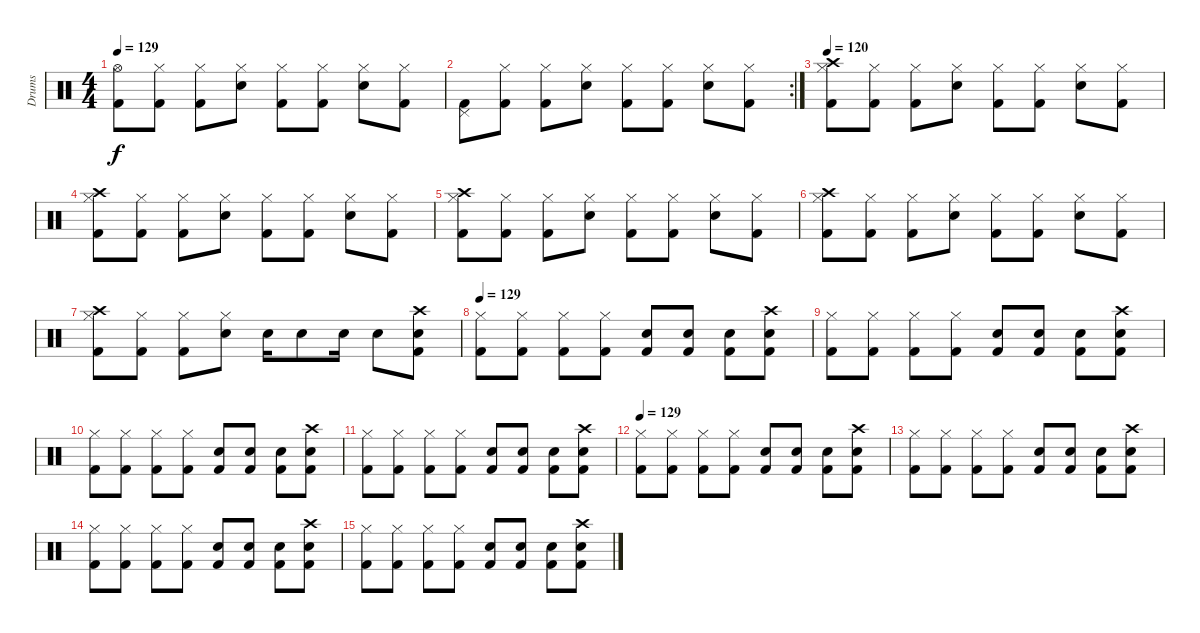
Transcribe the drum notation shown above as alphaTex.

\track ("Drums" "Drums") {instrument percussion}
\staff {score}
\articulation defaults
\ts (4 4)
\tempo 129
\clef neutral
\ks c
("Kick (hit) 2" "Hi-Hat (open)").8{dy f} ("Kick (hit) 2" "Hi-Hat (closed)").8 ("Kick (hit) 2" "Hi-Hat (closed)").8 ("Electric Snare (hit)" "Hi-Hat (closed)").8 ("Kick (hit) 2" "Hi-Hat (closed)").8 ("Kick (hit) 2" "Hi-Hat (closed)").8 ("Electric Snare (hit)" "Hi-Hat (closed)").8 ("Kick (hit) 2" "Hi-Hat (closed)").8 |
\rc 2
("Kick (hit) 2" "Pedal Hi-Hat (hit)").8 ("Kick (hit) 2" "Hi-Hat (closed)").8 ("Kick (hit) 2" "Hi-Hat (closed)").8 ("Electric Snare (hit)" "Hi-Hat (closed)").8 ("Kick (hit) 2" "Hi-Hat (closed)").8 ("Kick (hit) 2" "Hi-Hat (closed)").8 ("Electric Snare (hit)" "Hi-Hat (closed)").8 ("Kick (hit) 2" "Hi-Hat (closed)").8 |
\tempo 120
("Hi-Hat (closed)" "Kick (hit) 2" "Crash high (hit)").8 ("Kick (hit) 2" "Hi-Hat (closed)").8 ("Kick (hit) 2" "Hi-Hat (closed)").8 ("Electric Snare (hit)" "Hi-Hat (closed)").8 ("Kick (hit) 2" "Hi-Hat (closed)").8 ("Kick (hit) 2" "Hi-Hat (closed)").8 ("Electric Snare (hit)" "Hi-Hat (closed)").8 ("Kick (hit) 2" "Hi-Hat (closed)").8 |
("Hi-Hat (closed)" "Kick (hit) 2" "Crash high (hit)").8 ("Kick (hit) 2" "Hi-Hat (closed)").8 ("Kick (hit) 2" "Hi-Hat (closed)").8 ("Electric Snare (hit)" "Hi-Hat (closed)").8 ("Kick (hit) 2" "Hi-Hat (closed)").8 ("Kick (hit) 2" "Hi-Hat (closed)").8 ("Electric Snare (hit)" "Hi-Hat (closed)").8 ("Kick (hit) 2" "Hi-Hat (closed)").8 |
("Hi-Hat (closed)" "Kick (hit) 2" "Crash high (hit)").8 ("Kick (hit) 2" "Hi-Hat (closed)").8 ("Kick (hit) 2" "Hi-Hat (closed)").8 ("Electric Snare (hit)" "Hi-Hat (closed)").8 ("Kick (hit) 2" "Hi-Hat (closed)").8 ("Kick (hit) 2" "Hi-Hat (closed)").8 ("Electric Snare (hit)" "Hi-Hat (closed)").8 ("Kick (hit) 2" "Hi-Hat (closed)").8 |
("Hi-Hat (closed)" "Kick (hit) 2" "Crash high (hit)").8 ("Kick (hit) 2" "Hi-Hat (closed)").8 ("Kick (hit) 2" "Hi-Hat (closed)").8 ("Electric Snare (hit)" "Hi-Hat (closed)").8 ("Kick (hit) 2" "Hi-Hat (closed)").8 ("Kick (hit) 2" "Hi-Hat (closed)").8 ("Electric Snare (hit)" "Hi-Hat (closed)").8 ("Kick (hit) 2" "Hi-Hat (closed)").8 |
("Hi-Hat (closed)" "Kick (hit) 2" "Crash high (hit)").8 ("Kick (hit) 2" "Hi-Hat (closed)").8 ("Kick (hit) 2" "Hi-Hat (closed)").8 ("Electric Snare (hit)" "Hi-Hat (closed)").8 "Electric Snare (hit)".16 "Electric Snare (hit)".8 "Electric Snare (hit)".16 "Electric Snare (hit)".8 ("Kick (hit) 2" "Electric Snare (hit)" "Crash high (hit)").8 |
\tempo 129
("Kick (hit) 2" "Hi-Hat (closed)").8 ("Kick (hit) 2" "Hi-Hat (closed)").8 ("Kick (hit) 2" "Hi-Hat (closed)").8 ("Kick (hit) 2" "Hi-Hat (closed)").8 ("Kick (hit) 2" "Electric Snare (hit)").8 ("Kick (hit) 2" "Electric Snare (hit)").8 ("Kick (hit) 2" "Electric Snare (hit)").8 ("Crash high (hit)" "Kick (hit) 2" "Electric Snare (hit)").8 |
("Kick (hit) 2" "Hi-Hat (closed)").8 ("Kick (hit) 2" "Hi-Hat (closed)").8 ("Kick (hit) 2" "Hi-Hat (closed)").8 ("Kick (hit) 2" "Hi-Hat (closed)").8 ("Kick (hit) 2" "Electric Snare (hit)").8 ("Kick (hit) 2" "Electric Snare (hit)").8 ("Kick (hit) 2" "Electric Snare (hit)").8 ("Crash high (hit)" "Kick (hit) 2" "Electric Snare (hit)").8 |
("Kick (hit) 2" "Hi-Hat (closed)").8 ("Kick (hit) 2" "Hi-Hat (closed)").8 ("Kick (hit) 2" "Hi-Hat (closed)").8 ("Kick (hit) 2" "Hi-Hat (closed)").8 ("Kick (hit) 2" "Electric Snare (hit)").8 ("Kick (hit) 2" "Electric Snare (hit)").8 ("Kick (hit) 2" "Electric Snare (hit)").8 ("Crash high (hit)" "Kick (hit) 2" "Electric Snare (hit)").8 |
("Kick (hit) 2" "Hi-Hat (closed)").8 ("Kick (hit) 2" "Hi-Hat (closed)").8 ("Kick (hit) 2" "Hi-Hat (closed)").8 ("Kick (hit) 2" "Hi-Hat (closed)").8 ("Kick (hit) 2" "Electric Snare (hit)").8 ("Kick (hit) 2" "Electric Snare (hit)").8 ("Kick (hit) 2" "Electric Snare (hit)").8 ("Crash high (hit)" "Kick (hit) 2" "Electric Snare (hit)").8 |
\tempo 129
("Kick (hit) 2" "Hi-Hat (closed)").8 ("Kick (hit) 2" "Hi-Hat (closed)").8 ("Kick (hit) 2" "Hi-Hat (closed)").8 ("Kick (hit) 2" "Hi-Hat (closed)").8 ("Kick (hit) 2" "Electric Snare (hit)").8 ("Kick (hit) 2" "Electric Snare (hit)").8 ("Kick (hit) 2" "Electric Snare (hit)").8 ("Crash high (hit)" "Kick (hit) 2" "Electric Snare (hit)").8 |
("Kick (hit) 2" "Hi-Hat (closed)").8 ("Kick (hit) 2" "Hi-Hat (closed)").8 ("Kick (hit) 2" "Hi-Hat (closed)").8 ("Kick (hit) 2" "Hi-Hat (closed)").8 ("Kick (hit) 2" "Electric Snare (hit)").8 ("Kick (hit) 2" "Electric Snare (hit)").8 ("Kick (hit) 2" "Electric Snare (hit)").8 ("Crash high (hit)" "Kick (hit) 2" "Electric Snare (hit)").8 |
("Kick (hit) 2" "Hi-Hat (closed)").8 ("Kick (hit) 2" "Hi-Hat (closed)").8 ("Kick (hit) 2" "Hi-Hat (closed)").8 ("Kick (hit) 2" "Hi-Hat (closed)").8 ("Kick (hit) 2" "Electric Snare (hit)").8 ("Kick (hit) 2" "Electric Snare (hit)").8 ("Kick (hit) 2" "Electric Snare (hit)").8 ("Crash high (hit)" "Kick (hit) 2" "Electric Snare (hit)").8 |
("Kick (hit) 2" "Hi-Hat (closed)").8 ("Kick (hit) 2" "Hi-Hat (closed)").8 ("Kick (hit) 2" "Hi-Hat (closed)").8 ("Kick (hit) 2" "Hi-Hat (closed)").8 ("Kick (hit) 2" "Electric Snare (hit)").8 ("Kick (hit) 2" "Electric Snare (hit)").8 ("Kick (hit) 2" "Electric Snare (hit)").8 ("Crash high (hit)" "Kick (hit) 2" "Electric Snare (hit)").8
